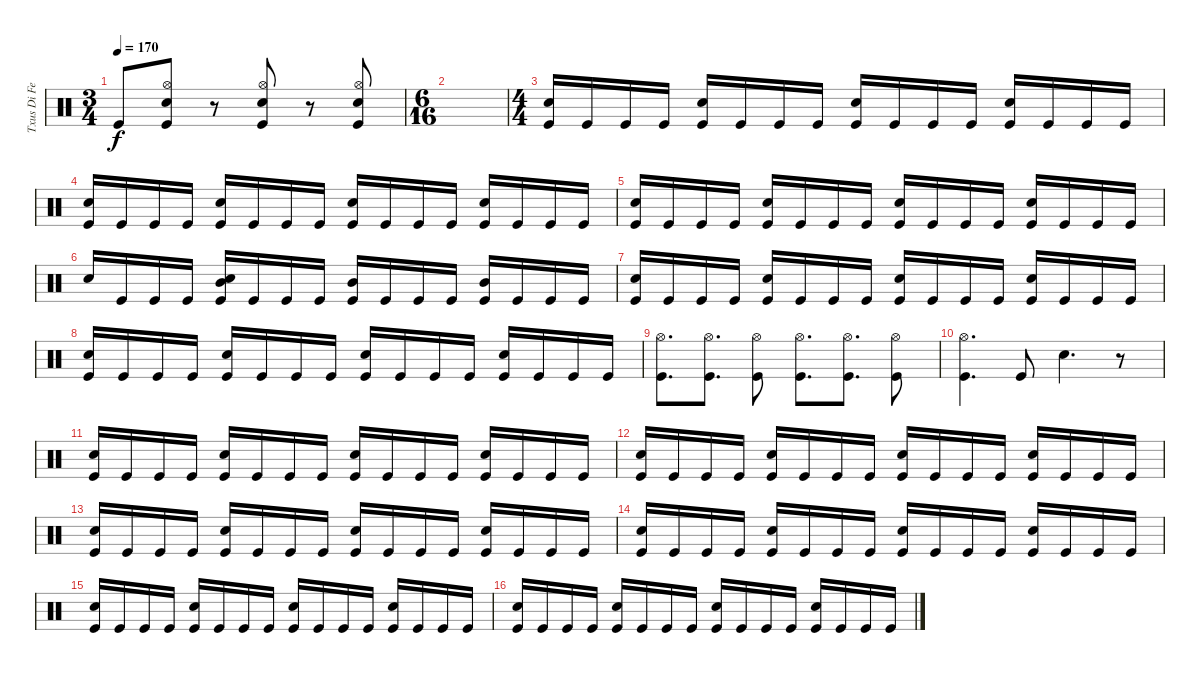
\track ("Txus Di Fellatio" "Txus Di Fe") {instrument percussion}
\staff {score}
\articulation defaults
\ts (3 4)
\tempo 170
\clef neutral
\ks c "Kick (hit)".8{dy f}
("Hi-Hat (open)" "Kick (hit)" "Snare (hit) 2").8 r.8 ("Hi-Hat (open)" "Kick (hit)" "Snare (hit) 2").8 r.8 ("Hi-Hat (open)" "Kick (hit)" "Snare (hit) 2").8 |
\ts (6 16)
|
\ts (4 4)
("Snare (hit) 2" "Kick (hit)").16 "Kick (hit)".16 "Kick (hit)".16 "Kick (hit)".16 ("Snare (hit) 2" "Kick (hit)").16 "Kick (hit)".16 "Kick (hit)".16 "Kick (hit)".16 ("Snare (hit) 2" "Kick (hit)").16 "Kick (hit)".16 "Kick (hit)".16 "Kick (hit)".16 ("Snare (hit) 2" "Kick (hit)").16 "Kick (hit)".16 "Kick (hit)".16 "Kick (hit)".16 |
("Snare (hit) 2" "Kick (hit)").16 "Kick (hit)".16 "Kick (hit)".16 "Kick (hit)".16 ("Snare (hit) 2" "Kick (hit)").16 "Kick (hit)".16 "Kick (hit)".16 "Kick (hit)".16 ("Snare (hit) 2" "Kick (hit)").16 "Kick (hit)".16 "Kick (hit)".16 "Kick (hit)".16 ("Snare (hit) 2" "Kick (hit)").16 "Kick (hit)".16 "Kick (hit)".16 "Kick (hit)".16 |
("Snare (hit) 2" "Kick (hit)").16 "Kick (hit)".16 "Kick (hit)".16 "Kick (hit)".16 ("Snare (hit) 2" "Kick (hit)").16 "Kick (hit)".16 "Kick (hit)".16 "Kick (hit)".16 ("Snare (hit) 2" "Kick (hit)").16 "Kick (hit)".16 "Kick (hit)".16 "Kick (hit)".16 ("Snare (hit) 2" "Kick (hit)").16 "Kick (hit)".16 "Kick (hit)".16 "Kick (hit)".16 |
"Snare (hit) 2".16 "Kick (hit)".16 "Kick (hit)".16 "Kick (hit)".16 ("Snare (hit) 2" "Kick (hit)" "Mid Tom (hit)").16 "Kick (hit)".16 "Kick (hit)".16 "Kick (hit)".16 ("Kick (hit)" "Mid Tom (hit)").16 "Kick (hit)".16 "Kick (hit)".16 "Kick (hit)".16 ("Kick (hit)" "Mid Tom (hit)").16 "Kick (hit)".16 "Kick (hit)".16 "Kick (hit)".16 |
("Snare (hit) 2" "Kick (hit)").16 "Kick (hit)".16 "Kick (hit)".16 "Kick (hit)".16 ("Snare (hit) 2" "Kick (hit)").16 "Kick (hit)".16 "Kick (hit)".16 "Kick (hit)".16 ("Snare (hit) 2" "Kick (hit)").16 "Kick (hit)".16 "Kick (hit)".16 "Kick (hit)".16 ("Snare (hit) 2" "Kick (hit)").16 "Kick (hit)".16 "Kick (hit)".16 "Kick (hit)".16 |
("Snare (hit) 2" "Kick (hit)").16 "Kick (hit)".16 "Kick (hit)".16 "Kick (hit)".16 ("Snare (hit) 2" "Kick (hit)").16 "Kick (hit)".16 "Kick (hit)".16 "Kick (hit)".16 ("Snare (hit) 2" "Kick (hit)").16 "Kick (hit)".16 "Kick (hit)".16 "Kick (hit)".16 ("Snare (hit) 2" "Kick (hit)").16 "Kick (hit)".16 "Kick (hit)".16 "Kick (hit)".16 |
("Hi-Hat (open)" "Kick (hit)").8{d} ("Hi-Hat (open)" "Kick (hit)").8{d} ("Hi-Hat (open)" "Kick (hit)").8 ("Hi-Hat (open)" "Kick (hit)").8{d} ("Hi-Hat (open)" "Kick (hit)").8{d} ("Hi-Hat (open)" "Kick (hit)").8 |
("Hi-Hat (open)" "Kick (hit)").4{d} "Kick (hit)".8 "Snare (hit) 2".4{d} r.8 |
("Snare (hit) 2" "Kick (hit)").16 "Kick (hit)".16 "Kick (hit)".16 "Kick (hit)".16 ("Snare (hit) 2" "Kick (hit)").16 "Kick (hit)".16 "Kick (hit)".16 "Kick (hit)".16 ("Snare (hit) 2" "Kick (hit)").16 "Kick (hit)".16 "Kick (hit)".16 "Kick (hit)".16 ("Snare (hit) 2" "Kick (hit)").16 "Kick (hit)".16 "Kick (hit)".16 "Kick (hit)".16 |
("Snare (hit) 2" "Kick (hit)").16 "Kick (hit)".16 "Kick (hit)".16 "Kick (hit)".16 ("Snare (hit) 2" "Kick (hit)").16 "Kick (hit)".16 "Kick (hit)".16 "Kick (hit)".16 ("Snare (hit) 2" "Kick (hit)").16 "Kick (hit)".16 "Kick (hit)".16 "Kick (hit)".16 ("Snare (hit) 2" "Kick (hit)").16 "Kick (hit)".16 "Kick (hit)".16 "Kick (hit)".16 |
("Snare (hit) 2" "Kick (hit)").16 "Kick (hit)".16 "Kick (hit)".16 "Kick (hit)".16 ("Snare (hit) 2" "Kick (hit)").16 "Kick (hit)".16 "Kick (hit)".16 "Kick (hit)".16 ("Snare (hit) 2" "Kick (hit)").16 "Kick (hit)".16 "Kick (hit)".16 "Kick (hit)".16 ("Snare (hit) 2" "Kick (hit)").16 "Kick (hit)".16 "Kick (hit)".16 "Kick (hit)".16 |
("Snare (hit) 2" "Kick (hit)").16 "Kick (hit)".16 "Kick (hit)".16 "Kick (hit)".16 ("Snare (hit) 2" "Kick (hit)").16 "Kick (hit)".16 "Kick (hit)".16 "Kick (hit)".16 ("Snare (hit) 2" "Kick (hit)").16 "Kick (hit)".16 "Kick (hit)".16 "Kick (hit)".16 ("Snare (hit) 2" "Kick (hit)").16 "Kick (hit)".16 "Kick (hit)".16 "Kick (hit)".16 |
("Snare (hit) 2" "Kick (hit)").16 "Kick (hit)".16 "Kick (hit)".16 "Kick (hit)".16 ("Snare (hit) 2" "Kick (hit)").16 "Kick (hit)".16 "Kick (hit)".16 "Kick (hit)".16 ("Snare (hit) 2" "Kick (hit)").16 "Kick (hit)".16 "Kick (hit)".16 "Kick (hit)".16 ("Snare (hit) 2" "Kick (hit)").16 "Kick (hit)".16 "Kick (hit)".16 "Kick (hit)".16 |
("Snare (hit) 2" "Kick (hit)").16 "Kick (hit)".16 "Kick (hit)".16 "Kick (hit)".16 ("Snare (hit) 2" "Kick (hit)").16 "Kick (hit)".16 "Kick (hit)".16 "Kick (hit)".16 ("Snare (hit) 2" "Kick (hit)").16 "Kick (hit)".16 "Kick (hit)".16 "Kick (hit)".16 ("Snare (hit) 2" "Kick (hit)").16 "Kick (hit)".16 "Kick (hit)".16 "Kick (hit)".16
